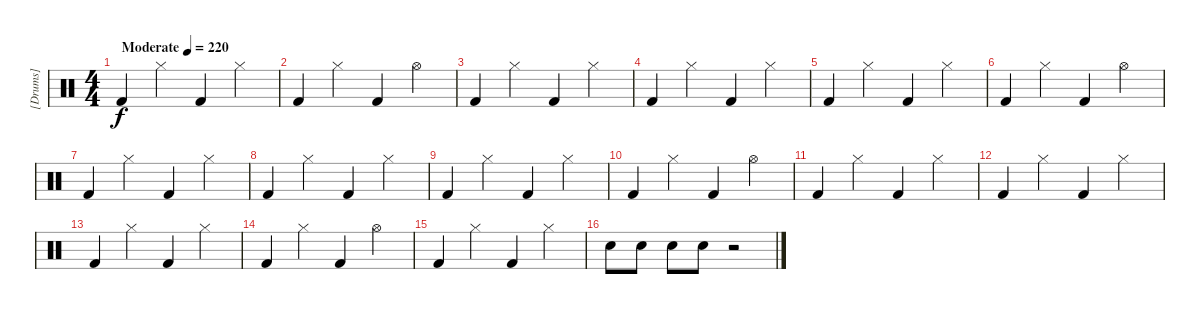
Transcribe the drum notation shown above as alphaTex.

\track ("[Drums]" "[Drums]") {instrument percussion}
\staff {score}
\articulation defaults
\ts (4 4)
\tempo (220 "Moderate")
\clef neutral
\ks c "Kick (hit) 2".4{dy f} "Hi-Hat (closed)".4 "Kick (hit) 2".4 "Hi-Hat (closed)".4
|
"Kick (hit) 2".4 "Hi-Hat (closed)".4 "Kick (hit) 2".4 "Hi-Hat (open)".4 |
"Kick (hit) 2".4 "Hi-Hat (closed)".4 "Kick (hit) 2".4 "Hi-Hat (closed)".4 |
"Kick (hit) 2".4 "Hi-Hat (closed)".4 "Kick (hit) 2".4 "Hi-Hat (closed)".4 |
"Kick (hit) 2".4 "Hi-Hat (closed)".4 "Kick (hit) 2".4 "Hi-Hat (closed)".4 |
"Kick (hit) 2".4 "Hi-Hat (closed)".4 "Kick (hit) 2".4 "Hi-Hat (open)".4 |
"Kick (hit) 2".4 "Hi-Hat (closed)".4 "Kick (hit) 2".4 "Hi-Hat (closed)".4 |
"Kick (hit) 2".4 "Hi-Hat (closed)".4 "Kick (hit) 2".4 "Hi-Hat (closed)".4 |
"Kick (hit) 2".4 "Hi-Hat (closed)".4 "Kick (hit) 2".4 "Hi-Hat (closed)".4 |
"Kick (hit) 2".4 "Hi-Hat (closed)".4 "Kick (hit) 2".4 "Hi-Hat (open)".4 |
"Kick (hit) 2".4 "Hi-Hat (closed)".4 "Kick (hit) 2".4 "Hi-Hat (closed)".4 |
"Kick (hit) 2".4 "Hi-Hat (closed)".4 "Kick (hit) 2".4 "Hi-Hat (closed)".4 |
"Kick (hit) 2".4 "Hi-Hat (closed)".4 "Kick (hit) 2".4 "Hi-Hat (closed)".4 |
"Kick (hit) 2".4 "Hi-Hat (closed)".4 "Kick (hit) 2".4 "Hi-Hat (open)".4 |
"Kick (hit) 2".4 "Hi-Hat (closed)".4 "Kick (hit) 2".4 "Hi-Hat (closed)".4 |
"Electric Snare (hit)".8 "Electric Snare (hit)".8 "Electric Snare (hit)".8 "Electric Snare (hit)".8 r.2
